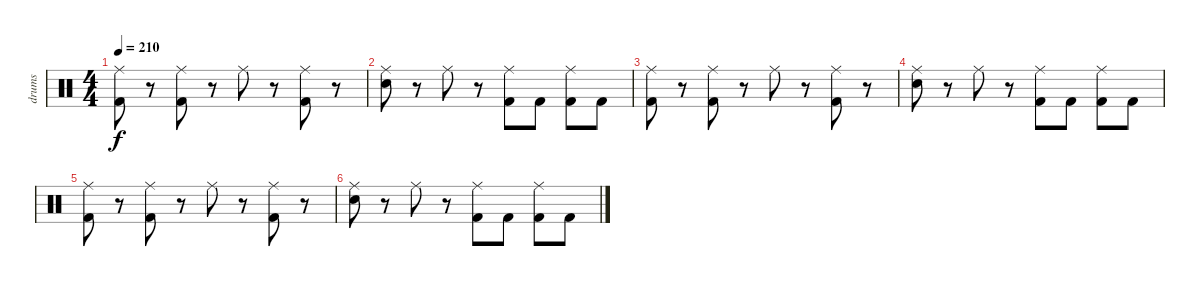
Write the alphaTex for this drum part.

\track ("drums" "drums") {instrument percussion}
\staff {score}
\articulation defaults
\ts (4 4)
\tempo 210
\clef neutral
\ks c
("Ride (middle)" "Kick (hit) 2").8{dy f} r.8 ("Ride (middle)" "Kick (hit) 2").8 r.8 "Ride (middle)".8 r.8 ("Ride (middle)" "Kick (hit) 2").8 r.8 |
("Ride (middle)" "Snare (hit) 2").8 r.8 "Ride (middle)".8 r.8 ("Ride (middle)" "Kick (hit) 2").8 "Kick (hit) 2".8 ("Ride (middle)" "Kick (hit) 2").8 "Kick (hit) 2".8 |
("Ride (middle)" "Kick (hit) 2").8 r.8 ("Ride (middle)" "Kick (hit) 2").8 r.8 "Ride (middle)".8 r.8 ("Ride (middle)" "Kick (hit) 2").8 r.8 |
("Ride (middle)" "Snare (hit) 2").8 r.8 "Ride (middle)".8 r.8 ("Ride (middle)" "Kick (hit) 2").8 "Kick (hit) 2".8 ("Ride (middle)" "Kick (hit) 2").8 "Kick (hit) 2".8 |
("Ride (middle)" "Kick (hit) 2").8 r.8 ("Ride (middle)" "Kick (hit) 2").8 r.8 "Ride (middle)".8 r.8 ("Ride (middle)" "Kick (hit) 2").8 r.8 |
("Ride (middle)" "Snare (hit) 2").8 r.8 "Ride (middle)".8 r.8 ("Ride (middle)" "Kick (hit) 2").8 "Kick (hit) 2".8 ("Ride (middle)" "Kick (hit) 2").8 "Kick (hit) 2".8
